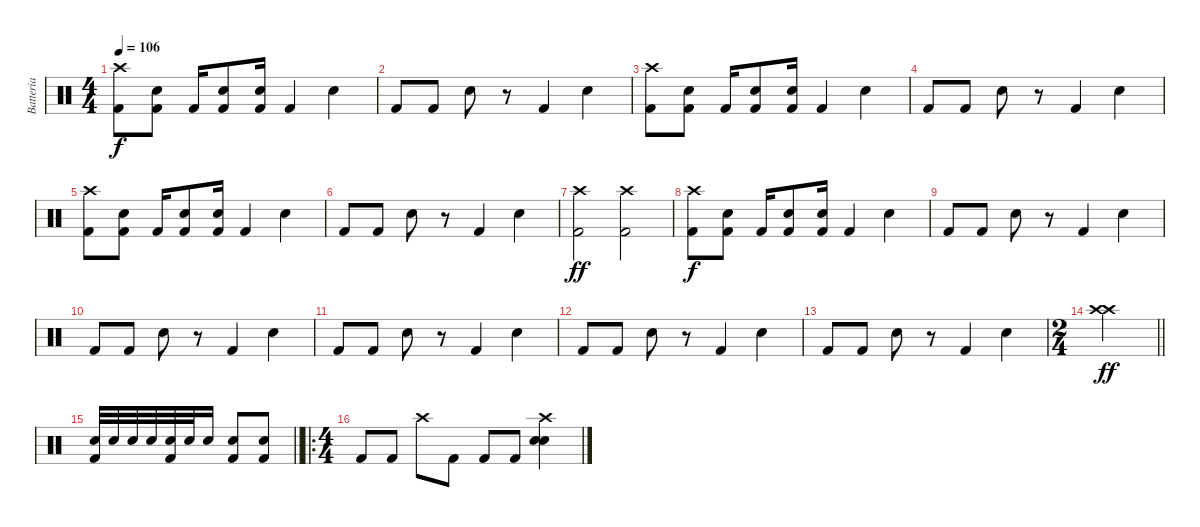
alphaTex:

\track ("Batteria" "Batteria") {instrument percussion}
\staff {score}
\articulation defaults
\ts (4 4)
\tempo 106
\clef neutral
\ks c
("Crash high (hit)" "Kick (hit) 2").8{dy f} ("Electric Snare (hit)" "Kick (hit) 2").8 "Kick (hit) 2".16 ("Electric Snare (hit)" "Kick (hit) 2").8 ("Electric Snare (hit)" "Kick (hit) 2").16 "Kick (hit) 2".4 "Electric Snare (hit)".4 |
"Kick (hit) 2".8 "Kick (hit) 2".8 "Electric Snare (hit)".8 r.8 "Kick (hit) 2".4 "Electric Snare (hit)".4 |
("Crash high (hit)" "Kick (hit) 2").8 ("Electric Snare (hit)" "Kick (hit) 2").8 "Kick (hit) 2".16 ("Electric Snare (hit)" "Kick (hit) 2").8 ("Electric Snare (hit)" "Kick (hit) 2").16 "Kick (hit) 2".4 "Electric Snare (hit)".4 |
"Kick (hit) 2".8 "Kick (hit) 2".8 "Electric Snare (hit)".8 r.8 "Kick (hit) 2".4 "Electric Snare (hit)".4 |
("Crash high (hit)" "Kick (hit) 2").8 ("Electric Snare (hit)" "Kick (hit) 2").8 "Kick (hit) 2".16 ("Electric Snare (hit)" "Kick (hit) 2").8 ("Electric Snare (hit)" "Kick (hit) 2").16 "Kick (hit) 2".4 "Electric Snare (hit)".4 |
"Kick (hit) 2".8 "Kick (hit) 2".8 "Electric Snare (hit)".8 r.8 "Kick (hit) 2".4 "Electric Snare (hit)".4 |
("Crash high (hit)" "Kick (hit) 2").2{dy ff} ("Crash high (hit)" "Kick (hit) 2").2 |
("Crash high (hit)" "Kick (hit) 2").8{dy f} ("Electric Snare (hit)" "Kick (hit) 2").8 "Kick (hit) 2".16 ("Electric Snare (hit)" "Kick (hit) 2").8 ("Electric Snare (hit)" "Kick (hit) 2").16 "Kick (hit) 2".4 "Electric Snare (hit)".4 |
"Kick (hit) 2".8 "Kick (hit) 2".8 "Electric Snare (hit)".8 r.8 "Kick (hit) 2".4 "Electric Snare (hit)".4 |
"Kick (hit) 2".8 "Kick (hit) 2".8 "Electric Snare (hit)".8 r.8 "Kick (hit) 2".4 "Electric Snare (hit)".4 |
"Kick (hit) 2".8 "Kick (hit) 2".8 "Electric Snare (hit)".8 r.8 "Kick (hit) 2".4 "Electric Snare (hit)".4 |
"Kick (hit) 2".8 "Kick (hit) 2".8 "Electric Snare (hit)".8 r.8 "Kick (hit) 2".4 "Electric Snare (hit)".4 |
"Kick (hit) 2".8 "Kick (hit) 2".8 "Electric Snare (hit)".8 r.8 "Kick (hit) 2".4 "Electric Snare (hit)".4 |
\ts (2 4)
\barLineRight lightlight
("Crash high (hit)" "Crash high (hit)").2{dy ff} |
\barLineRight lightlight
("Electric Snare (hit)" "Kick (hit) 2").32 "Electric Snare (hit)".32 "Electric Snare (hit)".32 "Electric Snare (hit)".32 ("Electric Snare (hit)" "Kick (hit) 2").32 "Electric Snare (hit)".32 "Electric Snare (hit)".16 ("Electric Snare (hit)" "Kick (hit) 2").8 ("Electric Snare (hit)" "Kick (hit) 2").8 |
\ro
\ts (4 4)
"Kick (hit) 2".8 "Kick (hit) 2".8 "Crash high (hit)".8 "Kick (hit) 2".8 "Kick (hit) 2".8 "Kick (hit) 2".8 ("Crash high (hit)" "Electric Snare (hit)" "Electric Snare (hit)").4
